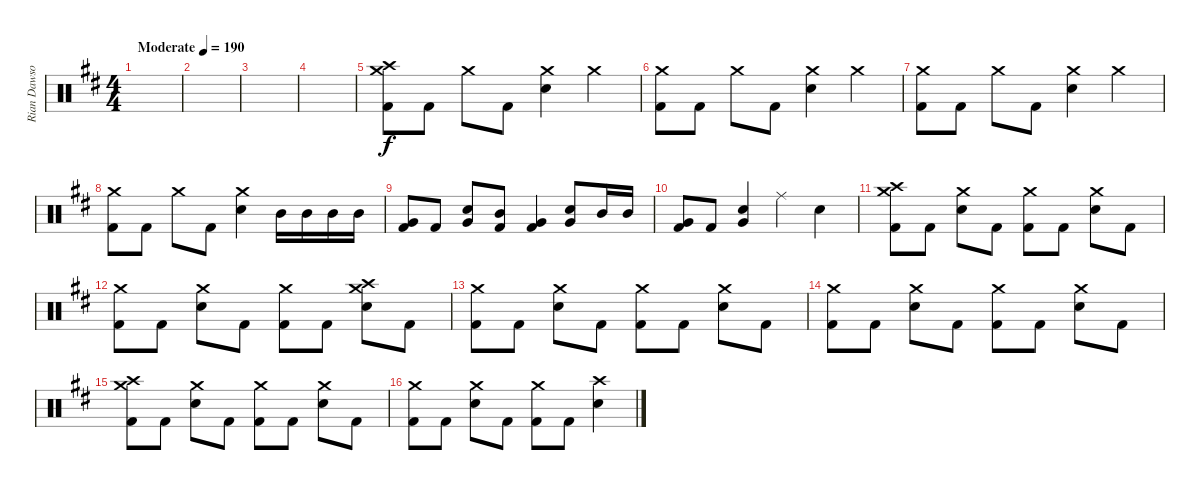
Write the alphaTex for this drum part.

\track ("Rian Dawson" "Rian Dawso") {instrument percussion}
\staff {score}
\articulation defaults
\ts (4 4)
\tempo (190 "Moderate")
\clef neutral
\ks d
|
|
|
|
("Crash high (hit)" "Crash medium (hit)" "Kick (hit) 2").8 "Kick (hit) 2".8 "Crash medium (hit)".8 "Kick (hit) 2".8 ("Crash medium (hit)" "Electric Snare (hit)").4 "Crash medium (hit)".4 |
("Crash medium (hit)" "Kick (hit) 2").8 "Kick (hit) 2".8 "Crash medium (hit)".8 "Kick (hit) 2".8 ("Crash medium (hit)" "Electric Snare (hit)").4 "Crash medium (hit)".4 |
("Crash medium (hit)" "Kick (hit) 2").8 "Kick (hit) 2".8 "Crash medium (hit)".8 "Kick (hit) 2".8 ("Crash medium (hit)" "Electric Snare (hit)").4 "Crash medium (hit)".4 |
("Crash medium (hit)" "Kick (hit) 2").8 "Kick (hit) 2".8 "Crash medium (hit)".8 "Kick (hit) 2".8 ("Crash medium (hit)" "Electric Snare (hit)").4 "Mid Tom (hit)".16 "Mid Tom (hit)".16 "Mid Tom (hit)".16 "Mid Tom (hit)".16 |
("Very Low Tom (hit)" "Kick (hit) 2").8 "Kick (hit) 2".8 ("Very Low Tom (hit)" "Electric Snare (hit)").8 ("Mid Tom (hit)" "Kick (hit) 2").8 ("Very Low Tom (hit)" "Kick (hit) 2").4 ("Very Low Tom (hit)" "Electric Snare (hit)").8 "Mid Tom (hit)".16 "Mid Tom (hit)".16 |
("Very Low Tom (hit)" "Kick (hit) 2").8 "Kick (hit) 2".8 ("Very Low Tom (hit)" "Electric Snare (hit)").4 "Ride (middle)".4 "Electric Snare (hit)".4 |
("Crash high (hit)" "Crash medium (hit)" "Kick (hit) 2").8 "Kick (hit) 2".8 ("Crash medium (hit)" "Electric Snare (hit)").8 "Kick (hit) 2".8 ("Crash medium (hit)" "Kick (hit) 2").8 "Kick (hit) 2".8 ("Crash medium (hit)" "Electric Snare (hit)").8 "Kick (hit) 2".8 |
("Crash medium (hit)" "Kick (hit) 2").8 "Kick (hit) 2".8 ("Crash medium (hit)" "Electric Snare (hit)").8 "Kick (hit) 2".8 ("Crash medium (hit)" "Kick (hit) 2").8 "Kick (hit) 2".8 ("Crash high (hit)" "Crash medium (hit)" "Electric Snare (hit)").8 "Kick (hit) 2".8 |
("Crash medium (hit)" "Kick (hit) 2").8 "Kick (hit) 2".8 ("Crash medium (hit)" "Electric Snare (hit)").8 "Kick (hit) 2".8 ("Crash medium (hit)" "Kick (hit) 2").8 "Kick (hit) 2".8 ("Crash medium (hit)" "Electric Snare (hit)").8 "Kick (hit) 2".8 |
("Crash medium (hit)" "Kick (hit) 2").8 "Kick (hit) 2".8 ("Crash medium (hit)" "Electric Snare (hit)").8 "Kick (hit) 2".8 ("Crash medium (hit)" "Kick (hit) 2").8 "Kick (hit) 2".8 ("Crash medium (hit)" "Electric Snare (hit)").8 "Kick (hit) 2".8 |
("Crash high (hit)" "Crash medium (hit)" "Kick (hit) 2").8 "Kick (hit) 2".8 ("Crash medium (hit)" "Electric Snare (hit)").8 "Kick (hit) 2".8 ("Crash medium (hit)" "Kick (hit) 2").8 "Kick (hit) 2".8 ("Crash medium (hit)" "Electric Snare (hit)").8 "Kick (hit) 2".8 |
("Crash medium (hit)" "Kick (hit) 2").8 "Kick (hit) 2".8 ("Crash medium (hit)" "Electric Snare (hit)").8 "Kick (hit) 2".8 ("Crash medium (hit)" "Kick (hit) 2").8 "Kick (hit) 2".8 ("Crash high (hit)" "Electric Snare (hit)").4
